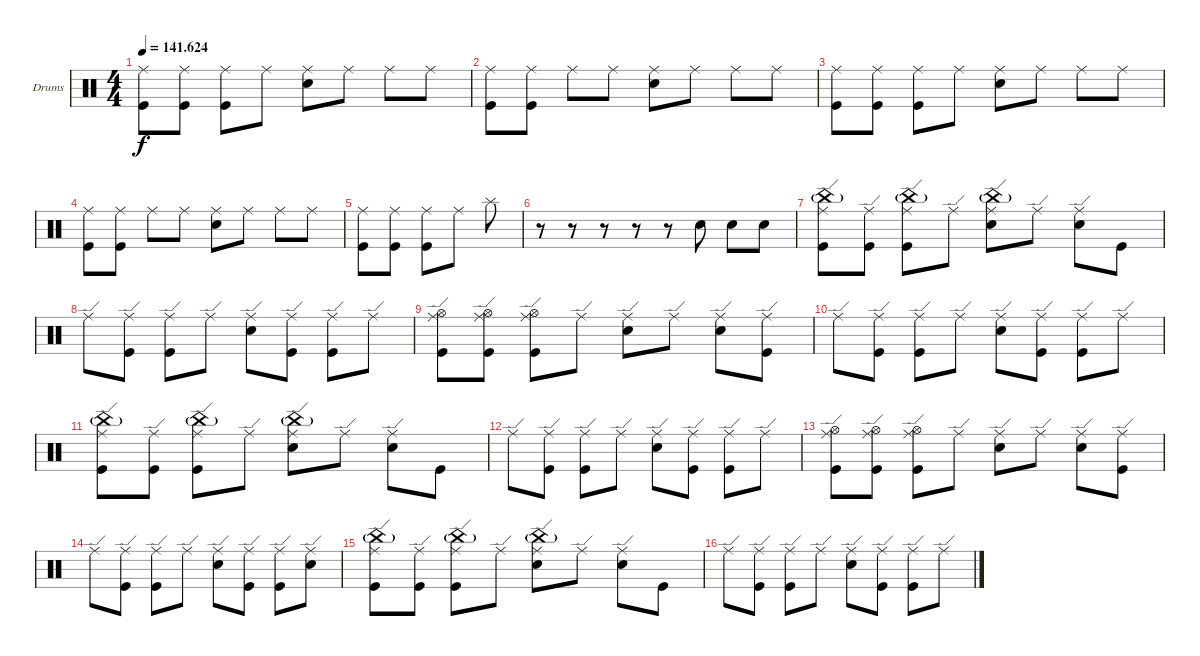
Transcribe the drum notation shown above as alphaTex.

\defaultSystemsLayout 4
\bracketExtendMode groupsimilarinstruments
\firstSystemTrackNameOrientation horizontal
\otherSystemsTrackNameOrientation horizontal
\track ("Drumkit" "Drums") {instrument percussion}
\staff {score}
\articulation defaults
\ts (4 4)
\tempo
141.624
\accidentals auto
\clef neutral
\ottava regular
\simile none
\ks c
("Ride (middle)" "Kick (hit)").8{dy f} ("Ride (middle)" "Kick (hit)").8 ("Ride (middle)" "Kick (hit)").8 "Ride (middle)".8 ("Ride (middle)" "Snare (hit) 2").8 "Ride (middle)".8 "Ride (middle)".8 "Ride (middle)".8 |
("Ride (middle)" "Kick (hit)").8 ("Ride (middle)" "Kick (hit)").8 "Ride (middle)".8 "Ride (middle)".8 ("Ride (middle)" "Snare (hit) 2").8 "Ride (middle)".8 "Ride (middle)".8 "Ride (middle)".8 |
("Ride (middle)" "Kick (hit)").8 ("Ride (middle)" "Kick (hit)").8 ("Ride (middle)" "Kick (hit)").8 "Ride (middle)".8 ("Ride (middle)" "Snare (hit) 2").8 "Ride (middle)".8 "Ride (middle)".8 "Ride (middle)".8 |
("Ride (middle)" "Kick (hit)").8 ("Ride (middle)" "Kick (hit)").8 "Ride (middle)".8 "Ride (middle)".8 ("Ride (middle)" "Snare (hit) 2").8 "Ride (middle)".8 "Ride (middle)".8 "Ride (middle)".8 |
("Ride (middle)" "Kick (hit)").8 ("Ride (middle)" "Kick (hit)").8 ("Ride (middle)" "Kick (hit)").8 "Ride (middle)".8 "Splash (hit)".8 |
r.8 r.8 r.8 r.8 r.8 "Snare (hit) 2".8 "Snare (hit) 2".8 "Snare (hit) 2".8 |
("Kick (hit)" "Ride (edge)" "China (hit)"{g}).8 ("Kick (hit)" "Ride (edge)").8 ("Kick (hit)" "Ride (edge)" "China (hit)"{g}).8 "Ride (edge)".8 ("Snare (hit) 2" "Ride (edge)" "China (hit)"{g}).8 "Ride (edge)".8 ("Ride (edge)" "Snare (hit) 2").8 "Kick (hit)".8 |
"Ride (edge)".8 ("Kick (hit)" "Ride (edge)").8 ("Ride (edge)" "Kick (hit)").8 "Ride (edge)".8 ("Ride (edge)" "Snare (hit) 2").8 ("Kick (hit)" "Ride (edge)").8 ("Ride (edge)" "Kick (hit)").8 "Ride (edge)".8 |
("Hi-Hat (open)" "Kick (hit)" "Ride (edge)").8 ("Hi-Hat (open)" "Kick (hit)" "Ride (edge)").8 ("Hi-Hat (open)" "Kick (hit)" "Ride (edge)").8 "Ride (edge)".8 ("Ride (edge)" "Snare (hit) 2").8 "Ride (edge)".8 ("Ride (edge)" "Snare (hit) 2").8 ("Ride (edge)" "Kick (hit)").8 |
"Ride (edge)".8 ("Kick (hit)" "Ride (edge)").8 ("Ride (edge)" "Kick (hit)").8 "Ride (edge)".8 ("Ride (edge)" "Snare (hit) 2").8 ("Kick (hit)" "Ride (edge)").8 ("Ride (edge)" "Kick (hit)").8 "Ride (edge)".8 |
("Kick (hit)" "Ride (edge)" "China (hit)"{g}).8 ("Kick (hit)" "Ride (edge)").8 ("Kick (hit)" "Ride (edge)" "China (hit)"{g}).8 "Ride (edge)".8 ("Snare (hit) 2" "Ride (edge)" "China (hit)"{g}).8 "Ride (edge)".8 ("Ride (edge)" "Snare (hit) 2").8 "Kick (hit)".8 |
"Ride (edge)".8 ("Kick (hit)" "Ride (edge)").8 ("Ride (edge)" "Kick (hit)").8 "Ride (edge)".8 ("Ride (edge)" "Snare (hit) 2").8 ("Kick (hit)" "Ride (edge)").8 ("Ride (edge)" "Kick (hit)").8 "Ride (edge)".8 |
("Hi-Hat (open)" "Kick (hit)" "Ride (edge)").8 ("Hi-Hat (open)" "Kick (hit)" "Ride (edge)").8 ("Hi-Hat (open)" "Kick (hit)" "Ride (edge)").8 "Ride (edge)".8 ("Ride (edge)" "Snare (hit) 2").8 "Ride (edge)".8 ("Ride (edge)" "Snare (hit) 2").8 ("Ride (edge)" "Kick (hit)").8 |
"Ride (edge)".8 ("Kick (hit)" "Ride (edge)").8 ("Ride (edge)" "Kick (hit)").8 "Ride (edge)".8 ("Ride (edge)" "Snare (hit) 2").8 ("Kick (hit)" "Ride (edge)").8 ("Ride (edge)" "Kick (hit)").8 ("Ride (edge)" "Snare (hit) 2").8 |
("Kick (hit)" "Ride (edge)" "China (hit)"{g}).8 ("Kick (hit)" "Ride (edge)").8 ("Kick (hit)" "Ride (edge)" "China (hit)"{g}).8 "Ride (edge)".8 ("Snare (hit) 2" "Ride (edge)" "China (hit)"{g}).8 "Ride (edge)".8 ("Ride (edge)" "Snare (hit) 2").8 "Kick (hit)".8 |
"Ride (edge)".8 ("Kick (hit)" "Ride (edge)").8 ("Ride (edge)" "Kick (hit)").8 "Ride (edge)".8 ("Ride (edge)" "Snare (hit) 2").8 ("Kick (hit)" "Ride (edge)").8 ("Ride (edge)" "Kick (hit)").8 "Ride (edge)".8
